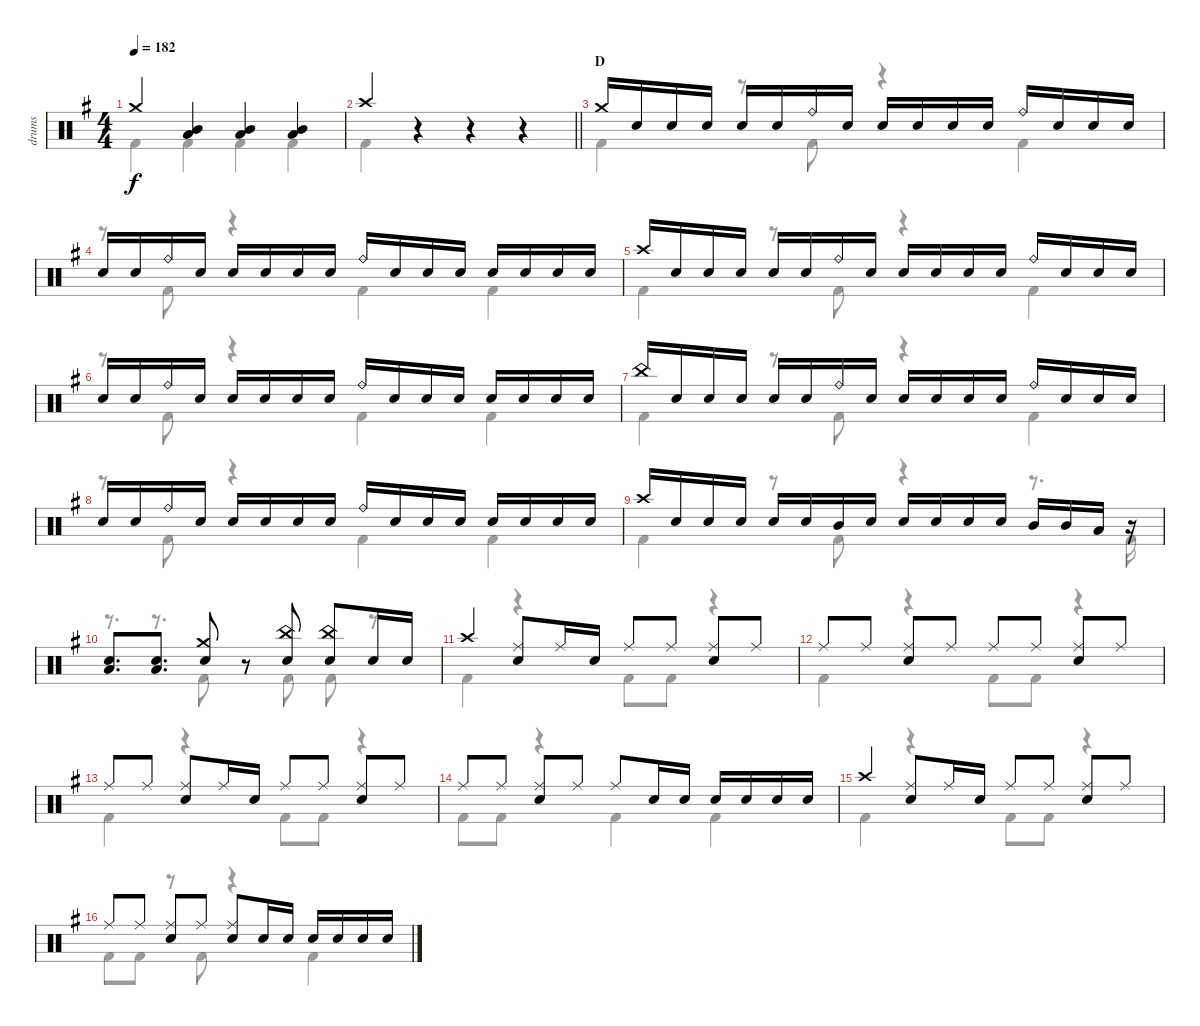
\track ("drums" "drums") {instrument percussion}
\staff {score}
\articulation defaults
\voice
\ts (4 4)
\tempo 182
\clef neutral
\ks g "Crash medium (hit)".4{dy f}
("Mid Tom (hit)" "Low Floor Tom (hit)").4 ("Mid Tom (hit)" "Low Floor Tom (hit)").4 ("Mid Tom (hit)" "Low Floor Tom (hit)").4 |
\barLineRight lightlight "Crash high (hit)".4
r.4 r.4 r.4 |
\section ("" "D")
"Crash medium (hit)".16 "Snare (hit) 2".16 "Snare (hit) 2".16 "Snare (hit) 2".16 "Snare (hit) 2".16 "Snare (hit) 2".16 "Ride (bell)".16 "Snare (hit) 2".16 "Snare (hit) 2".16 "Snare (hit) 2".16 "Snare (hit) 2".16 "Snare (hit) 2".16 "Ride (bell)".16 "Snare (hit) 2".16 "Snare (hit) 2".16 "Snare (hit) 2".16 |
"Snare (hit) 2".16 "Snare (hit) 2".16 "Ride (bell)".16 "Snare (hit) 2".16 "Snare (hit) 2".16 "Snare (hit) 2".16 "Snare (hit) 2".16 "Snare (hit) 2".16 "Ride (bell)".16 "Snare (hit) 2".16 "Snare (hit) 2".16 "Snare (hit) 2".16 "Snare (hit) 2".16 "Snare (hit) 2".16 "Snare (hit) 2".16 "Snare (hit) 2".16 |
"Crash high (hit)".16 "Snare (hit) 2".16 "Snare (hit) 2".16 "Snare (hit) 2".16 "Snare (hit) 2".16 "Snare (hit) 2".16 "Ride (bell)".16 "Snare (hit) 2".16 "Snare (hit) 2".16 "Snare (hit) 2".16 "Snare (hit) 2".16 "Snare (hit) 2".16 "Ride (bell)".16 "Snare (hit) 2".16 "Snare (hit) 2".16 "Snare (hit) 2".16 |
"Snare (hit) 2".16 "Snare (hit) 2".16 "Ride (bell)".16 "Snare (hit) 2".16 "Snare (hit) 2".16 "Snare (hit) 2".16 "Snare (hit) 2".16 "Snare (hit) 2".16 "Ride (bell)".16 "Snare (hit) 2".16 "Snare (hit) 2".16 "Snare (hit) 2".16 "Snare (hit) 2".16 "Snare (hit) 2".16 "Snare (hit) 2".16 "Snare (hit) 2".16 |
"China (hit)".16 "Snare (hit) 2".16 "Snare (hit) 2".16 "Snare (hit) 2".16 "Snare (hit) 2".16 "Snare (hit) 2".16 "Ride (bell)".16 "Snare (hit) 2".16 "Snare (hit) 2".16 "Snare (hit) 2".16 "Snare (hit) 2".16 "Snare (hit) 2".16 "Ride (bell)".16 "Snare (hit) 2".16 "Snare (hit) 2".16 "Snare (hit) 2".16 |
"Snare (hit) 2".16 "Snare (hit) 2".16 "Ride (bell)".16 "Snare (hit) 2".16 "Snare (hit) 2".16 "Snare (hit) 2".16 "Snare (hit) 2".16 "Snare (hit) 2".16 "Ride (bell)".16 "Snare (hit) 2".16 "Snare (hit) 2".16 "Snare (hit) 2".16 "Snare (hit) 2".16 "Snare (hit) 2".16 "Snare (hit) 2".16 "Snare (hit) 2".16 |
"Crash high (hit)".16 "Snare (hit) 2".16 "Snare (hit) 2".16 "Snare (hit) 2".16 "Snare (hit) 2".16 "Snare (hit) 2".16 "Mid Tom (hit)".16 "Snare (hit) 2".16 "Snare (hit) 2".16 "Snare (hit) 2".16 "Snare (hit) 2".16 "Snare (hit) 2".16 "Mid Tom (hit)".16 "Mid Tom (hit)".16 "Low Tom (hit)".16 r.16 |
("Snare (hit) 2" "Low Floor Tom (hit)").8{d} ("Snare (hit) 2" "Low Floor Tom (hit)").8{d} ("Crash medium (hit)" "Snare (hit) 2").8 r.8 ("China (hit)" "Snare (hit) 2").8 ("China (hit)" "Snare (hit) 2").8 "Snare (hit) 2".16 "Snare (hit) 2".16 |
"Crash high (hit)".4 ("Ride (middle)" "Snare (hit) 2").8 "Ride (middle)".16 "Snare (hit) 2".16 "Ride (middle)".8 "Ride (middle)".8 ("Ride (middle)" "Snare (hit) 2").8 "Ride (middle)".8 |
"Ride (middle)".8 "Ride (middle)".8 ("Ride (middle)" "Snare (hit) 2").8 "Ride (middle)".8 "Ride (middle)".8 "Ride (middle)".8 ("Ride (middle)" "Snare (hit) 2").8 "Ride (middle)".8 |
"Ride (middle)".8 "Ride (middle)".8 ("Ride (middle)" "Snare (hit) 2").8 "Ride (middle)".16 "Snare (hit) 2".16 "Ride (middle)".8 "Ride (middle)".8 ("Ride (middle)" "Snare (hit) 2").8 "Ride (middle)".8 |
"Ride (middle)".8 "Ride (middle)".8 ("Ride (middle)" "Snare (hit) 2").8 "Ride (middle)".8 "Ride (middle)".8 "Snare (hit) 2".16 "Snare (hit) 2".16 "Snare (hit) 2".16 "Snare (hit) 2".16 "Snare (hit) 2".16 "Snare (hit) 2".16 |
"Crash high (hit)".4 ("Ride (middle)" "Snare (hit) 2").8 "Ride (middle)".16 "Snare (hit) 2".16 "Ride (middle)".8 "Ride (middle)".8 ("Ride (middle)" "Snare (hit) 2").8 "Ride (middle)".8 |
"Ride (middle)".8 "Ride (middle)".8 ("Ride (middle)" "Snare (hit) 2").8 "Ride (middle)".8 ("Ride (middle)" "Snare (hit) 2").8 "Snare (hit) 2".16 "Snare (hit) 2".16 "Snare (hit) 2".16 "Snare (hit) 2".16 "Snare (hit) 2".16 "Snare (hit) 2".16
\voice
\clef neutral
\ottava regular
\simile none
\ks g "Kick (hit) 2".4{dy f} "Kick (hit) 2".4 "Kick (hit) 2".4 "Kick (hit) 2".4
|
\barLineRight lightlight "Kick (hit) 2".4
r.4 r.4 r.4 |
"Kick (hit) 2".4 r.8 "Kick (hit) 2".8 r.4 "Kick (hit) 2".4 |
r.8 "Kick (hit) 2".8 r.4 "Kick (hit) 2".4 "Kick (hit) 2".4 |
"Kick (hit) 2".4 r.8 "Kick (hit) 2".8 r.4 "Kick (hit) 2".4 |
r.8 "Kick (hit) 2".8 r.4 "Kick (hit) 2".4 "Kick (hit) 2".4 |
"Kick (hit) 2".4 r.8 "Kick (hit) 2".8 r.4 "Kick (hit) 2".4 |
r.8 "Kick (hit) 2".8 r.4 "Kick (hit) 2".4 "Kick (hit) 2".4 |
"Kick (hit) 2".4 r.8 "Kick (hit) 2".8 r.4 r.8{d} "Kick (hit) 2".16 |
r.8{d} r.8{d} "Kick (hit) 2".8 r.8 "Kick (hit) 2".8 "Kick (hit) 2".8 r.8 |
"Kick (hit) 2".4 r.4 "Kick (hit) 2".8 "Kick (hit) 2".8 r.4 |
"Kick (hit) 2".4 r.4 "Kick (hit) 2".8 "Kick (hit) 2".8 r.4 |
"Kick (hit) 2".4 r.4 "Kick (hit) 2".8 "Kick (hit) 2".8 r.4 |
"Kick (hit) 2".8 "Kick (hit) 2".8 r.4 "Kick (hit) 2".4 "Kick (hit) 2".4 |
"Kick (hit) 2".4 r.4 "Kick (hit) 2".8 "Kick (hit) 2".8 r.4 |
"Kick (hit) 2".8 "Kick (hit) 2".8 r.8 "Kick (hit) 2".8 r.4 "Kick (hit) 2".4
